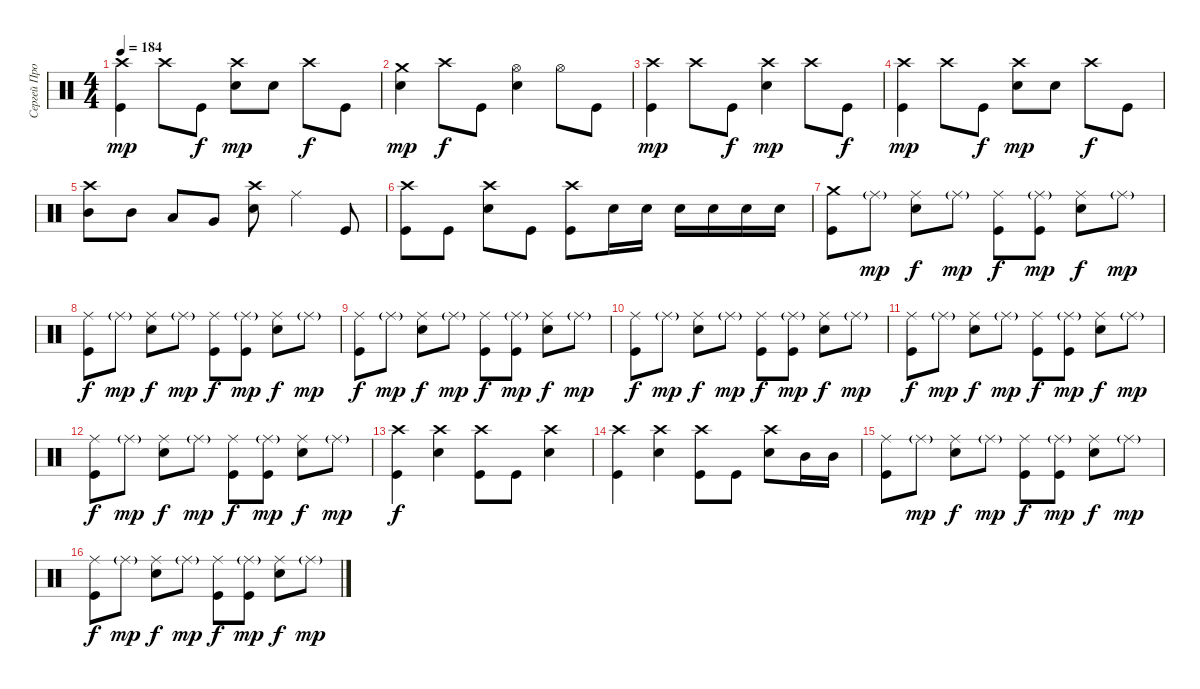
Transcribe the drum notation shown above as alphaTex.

\track ("Сергей Прокофьев" "Сергей Про") {instrument percussion}
\staff {score}
\articulation defaults
\ts (4 4)
\tempo 184
\clef neutral
\ks c
("Crash high (hit)" "Kick (hit)").4{dy mp} "Crash high (hit)".8 "Kick (hit)".8{dy f} ("Crash high (hit)" "Electric Snare (hit)").8{dy mp} "Electric Snare (hit)".8 "Crash high (hit)".8{dy f} "Kick (hit)".8 |
("Crash medium (hit)" "Electric Snare (hit)").4{dy mp} "Crash high (hit)".8{dy f} "Kick (hit)".8 ("Hi-Hat (open)" "Electric Snare (hit)").4 "Hi-Hat (open)".8 "Kick (hit)".8 |
("Crash high (hit)" "Kick (hit)").4{dy mp} "Crash high (hit)".8 "Kick (hit)".8{dy f} ("Crash high (hit)" "Electric Snare (hit)").4{dy mp} "Crash high (hit)".8 "Kick (hit)".8{dy f} |
("Crash high (hit)" "Kick (hit)").4{dy mp} "Crash high (hit)".8 "Kick (hit)".8{dy f} ("Crash high (hit)" "Electric Snare (hit)").8{dy mp} "Electric Snare (hit)".8 "Crash high (hit)".8{dy f} "Kick (hit)".8 |
("Crash high (hit)" "Mid Tom (hit)").8 "Mid Tom (hit)".8 "Low Tom (hit)".8 "Very Low Tom (hit)".8 ("Crash high (hit)" "Electric Snare (hit)").8 "Ride (middle)".4 "Kick (hit)".8 |
("Crash high (hit)" "Kick (hit)").8 "Kick (hit)".8 ("Crash high (hit)" "Electric Snare (hit)").8 "Kick (hit)".8 ("Crash high (hit)" "Kick (hit)").8 "Electric Snare (hit)".16 "Electric Snare (hit)".16 "Electric Snare (hit)".16 "Electric Snare (hit)".16 "Electric Snare (hit)".16 "Electric Snare (hit)".16 |
("Crash medium (hit)" "Kick (hit)").8 "Ride (middle)"{g}.8{dy mp} ("Ride (middle)" "Electric Snare (hit)").8{dy f} "Ride (middle)"{g}.8{dy mp} ("Ride (middle)" "Kick (hit)").8{dy f} ("Ride (middle)"{g} "Kick (hit)").8{dy mp} ("Ride (middle)" "Electric Snare (hit)").8{dy f} "Ride (middle)"{g}.8{dy mp} |
("Ride (middle)" "Kick (hit)").8{dy f} "Ride (middle)"{g}.8{dy mp} ("Ride (middle)" "Electric Snare (hit)").8{dy f} "Ride (middle)"{g}.8{dy mp} ("Ride (middle)" "Kick (hit)").8{dy f} ("Ride (middle)"{g} "Kick (hit)").8{dy mp} ("Ride (middle)" "Electric Snare (hit)").8{dy f} "Ride (middle)"{g}.8{dy mp} |
("Ride (middle)" "Kick (hit)").8{dy f} "Ride (middle)"{g}.8{dy mp} ("Ride (middle)" "Electric Snare (hit)").8{dy f} "Ride (middle)"{g}.8{dy mp} ("Ride (middle)" "Kick (hit)").8{dy f} ("Ride (middle)"{g} "Kick (hit)").8{dy mp} ("Ride (middle)" "Electric Snare (hit)").8{dy f} "Ride (middle)"{g}.8{dy mp} |
("Ride (middle)" "Kick (hit)").8{dy f} "Ride (middle)"{g}.8{dy mp} ("Ride (middle)" "Electric Snare (hit)").8{dy f} "Ride (middle)"{g}.8{dy mp} ("Ride (middle)" "Kick (hit)").8{dy f} ("Ride (middle)"{g} "Kick (hit)").8{dy mp} ("Ride (middle)" "Electric Snare (hit)").8{dy f} "Ride (middle)"{g}.8{dy mp} |
("Ride (middle)" "Kick (hit)").8{dy f} "Ride (middle)"{g}.8{dy mp} ("Ride (middle)" "Electric Snare (hit)").8{dy f} "Ride (middle)"{g}.8{dy mp} ("Ride (middle)" "Kick (hit)").8{dy f} ("Ride (middle)"{g} "Kick (hit)").8{dy mp} ("Ride (middle)" "Electric Snare (hit)").8{dy f} "Ride (middle)"{g}.8{dy mp} |
("Ride (middle)" "Kick (hit)").8{dy f} "Ride (middle)"{g}.8{dy mp} ("Ride (middle)" "Electric Snare (hit)").8{dy f} "Ride (middle)"{g}.8{dy mp} ("Ride (middle)" "Kick (hit)").8{dy f} ("Ride (middle)"{g} "Kick (hit)").8{dy mp} ("Ride (middle)" "Electric Snare (hit)").8{dy f} "Ride (middle)"{g}.8{dy mp} |
("Crash high (hit)" "Kick (hit)").4{dy f} ("Crash high (hit)" "Electric Snare (hit)").4 ("Crash high (hit)" "Kick (hit)").8 "Kick (hit)".8 ("Crash high (hit)" "Electric Snare (hit)").4 |
("Crash high (hit)" "Kick (hit)").4 ("Crash high (hit)" "Electric Snare (hit)").4 ("Crash high (hit)" "Kick (hit)").8 "Kick (hit)".8 ("Crash high (hit)" "Electric Snare (hit)").8 "Mid Tom (hit)".16 "Mid Tom (hit)".16 |
("Ride (middle)" "Kick (hit)").8 "Ride (middle)"{g}.8{dy mp} ("Ride (middle)" "Electric Snare (hit)").8{dy f} "Ride (middle)"{g}.8{dy mp} ("Ride (middle)" "Kick (hit)").8{dy f} ("Ride (middle)"{g} "Kick (hit)").8{dy mp} ("Ride (middle)" "Electric Snare (hit)").8{dy f} "Ride (middle)"{g}.8{dy mp} |
("Ride (middle)" "Kick (hit)").8{dy f} "Ride (middle)"{g}.8{dy mp} ("Ride (middle)" "Electric Snare (hit)").8{dy f} "Ride (middle)"{g}.8{dy mp} ("Ride (middle)" "Kick (hit)").8{dy f} ("Ride (middle)"{g} "Kick (hit)").8{dy mp} ("Ride (middle)" "Electric Snare (hit)").8{dy f} "Ride (middle)"{g}.8{dy mp}
